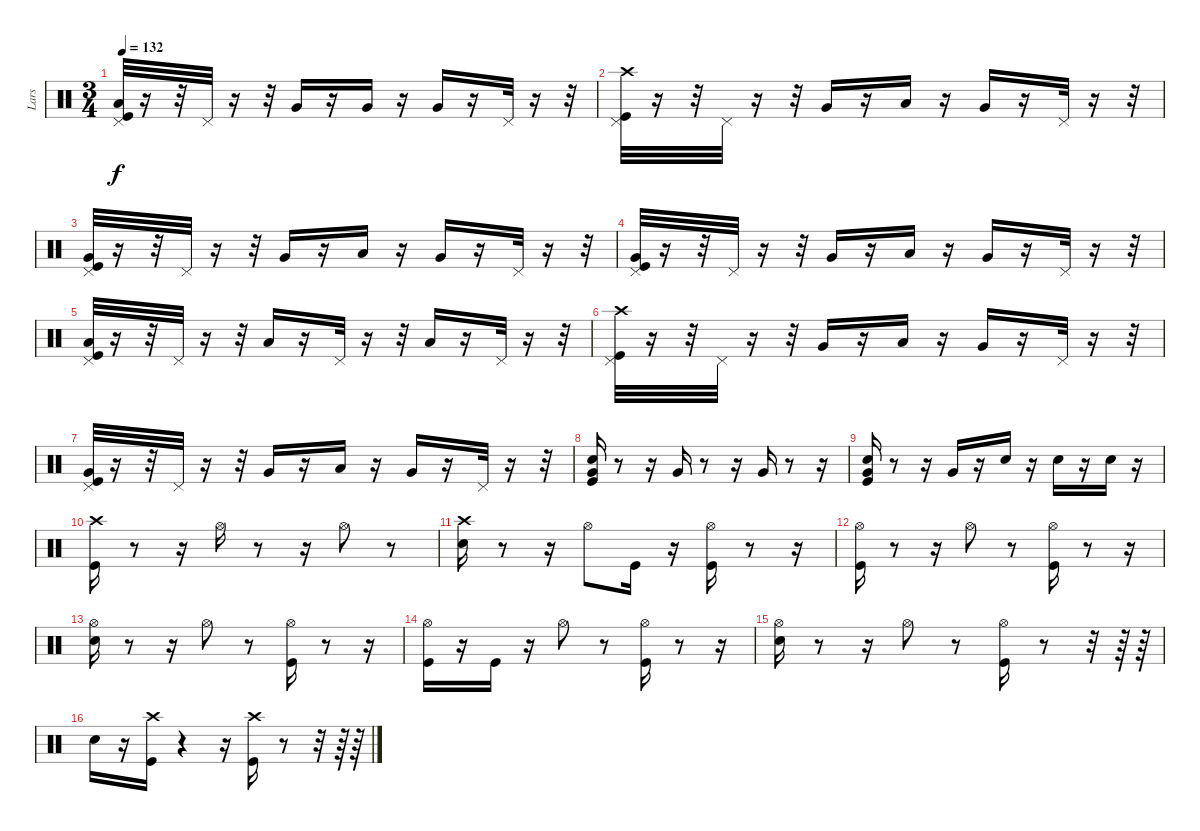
\track ("Lars" "Lars") {instrument percussion}
\staff {score}
\articulation defaults
\ts (3 4)
\tempo 132
\clef neutral
\ks c
("Kick (hit)" "Low Tom (hit)" "Pedal Hi-Hat (hit)").32{dy f} r.16 r.32 "Pedal Hi-Hat (hit)".32 r.16 r.32 "Very Low Tom (hit)".16 r.16 "Very Low Tom (hit)".16 r.16 "Very Low Tom (hit)".16 r.16 "Pedal Hi-Hat (hit)".32 r.16 r.32 |
("Kick (hit)" "Crash high (hit)" "Pedal Hi-Hat (hit)").32 r.16 r.32 "Pedal Hi-Hat (hit)".32 r.16 r.32 "Very Low Tom (hit)".16 r.16 "Low Tom (hit)".16 r.16 "Very Low Tom (hit)".16 r.16 "Pedal Hi-Hat (hit)".32 r.16 r.32 |
("Kick (hit)" "Pedal Hi-Hat (hit)" "Very Low Tom (hit)").32 r.16 r.32 "Pedal Hi-Hat (hit)".32 r.16 r.32 "Very Low Tom (hit)".16 r.16 "Low Tom (hit)".16 r.16 "Very Low Tom (hit)".16 r.16 "Pedal Hi-Hat (hit)".32 r.16 r.32 |
("Kick (hit)" "Pedal Hi-Hat (hit)" "Very Low Tom (hit)").32 r.16 r.32 "Pedal Hi-Hat (hit)".32 r.16 r.32 "Very Low Tom (hit)".16 r.16 "Low Tom (hit)".16 r.16 "Very Low Tom (hit)".16 r.16 "Pedal Hi-Hat (hit)".32 r.16 r.32 |
("Kick (hit)" "Low Tom (hit)" "Pedal Hi-Hat (hit)").32 r.16 r.32 "Pedal Hi-Hat (hit)".32 r.16 r.32 "Low Floor Tom (hit)".16 r.16 "Pedal Hi-Hat (hit)".32 r.16 r.32 "Low Floor Tom (hit)".16 r.16 "Pedal Hi-Hat (hit)".32 r.16 r.32 |
("Pedal Hi-Hat (hit)" "Kick (hit)" "Crash high (hit)").32 r.16 r.32 "Pedal Hi-Hat (hit)".32 r.16 r.32 "Very Low Tom (hit)".16 r.16 "Low Tom (hit)".16 r.16 "Very Low Tom (hit)".16 r.16 "Pedal Hi-Hat (hit)".32 r.16 r.32 |
("Pedal Hi-Hat (hit)" "Kick (hit)" "Very Low Tom (hit)").32 r.16 r.32 "Pedal Hi-Hat (hit)".32 r.16 r.32 "Very Low Tom (hit)".16 r.16 "Low Tom (hit)".16 r.16 "Very Low Tom (hit)".16 r.16 "Pedal Hi-Hat (hit)".32 r.16 r.32 |
("Very Low Tom (hit)" "Kick (hit)" "Snare (hit) 2").16 r.8 r.16 "Very Low Tom (hit)".16 r.8 r.16 "Very Low Tom (hit)".16 r.8 r.16 |
("Snare (hit) 2" "Kick (hit)" "Very Low Tom (hit)").16 r.8 r.16 "Very Low Tom (hit)".16 r.16 "Snare (hit) 2".16 r.16 "Snare (hit) 2".16 r.16 "Snare (hit) 2".16 r.16 |
("Crash high (hit)" "Kick (hit)").16 r.8 r.16 "Hi-Hat (open)".16 r.8 r.16 "Hi-Hat (open)".8 r.8 |
("Snare (hit) 2" "Crash high (hit)").16 r.8 r.16 "Hi-Hat (open)".8 "Kick (hit)".16 r.16 ("Hi-Hat (open)" "Kick (hit)").16 r.8 r.16 |
("Kick (hit)" "Hi-Hat (open)").16 r.8 r.16 "Hi-Hat (open)".8 r.8 ("Hi-Hat (open)" "Kick (hit)").16 r.8 r.16 |
("Hi-Hat (open)" "Snare (hit) 2").16 r.8 r.16 "Hi-Hat (open)".8 r.8 ("Hi-Hat (open)" "Kick (hit)").16 r.8 r.16 |
("Hi-Hat (open)" "Kick (hit)").16 r.16 "Kick (hit)".16 r.16 "Hi-Hat (open)".8 r.8 ("Kick (hit)" "Hi-Hat (open)").16 r.8 r.16 |
("Hi-Hat (open)" "Snare (hit) 2").16 r.8 r.16 "Hi-Hat (open)".8 r.8 ("Hi-Hat (open)" "Kick (hit)").16 r.8 r.32 r.64 r.64 |
"Snare (hit) 2".16 r.16 ("Kick (hit)" "Crash high (hit)").16 r.4 r.16 ("Kick (hit)" "Crash high (hit)").16 r.8 r.32 r.64 r.64
